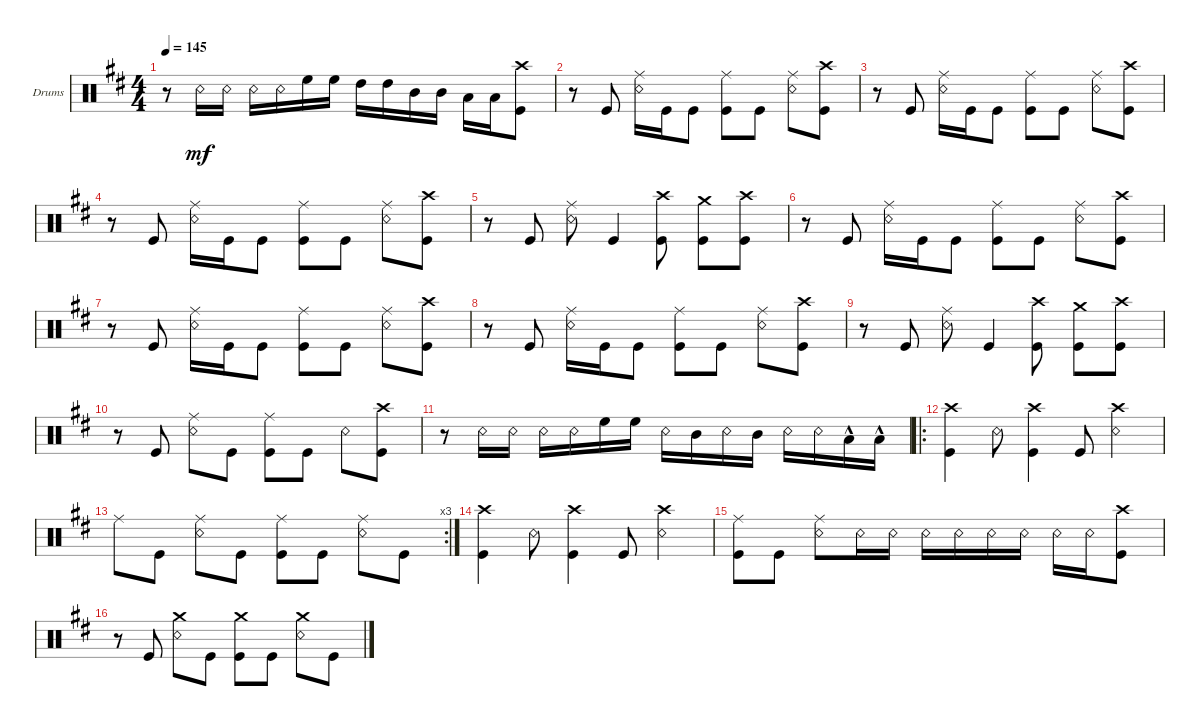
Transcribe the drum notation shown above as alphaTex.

\defaultSystemsLayout 4
\bracketExtendMode groupsimilarinstruments
\firstSystemTrackNameOrientation horizontal
\otherSystemsTrackNameOrientation horizontal
\track ("Drumkit" "Drums") {instrument percussion}
\staff {score}
\articulation defaults
\ts (4 4)
\tempo 145
\clef neutral
\ks bminor
r.8{dy mf} "Snare (rim shot)".16 "Snare (rim shot)".16 "Snare (rim shot)".16 "Snare (rim shot)".16 "High Floor Tom (hit)".16 "High Floor Tom (hit)".16 "High Tom (hit)".16 "High Tom (hit)".16 "Mid Tom (hit)".16 "Mid Tom (hit)".16 "Low Tom (hit)".16 "Low Tom (hit)".16 ("Kick (hit)" "Crash high (hit)").8 |
r.8 "Kick (hit)".8 ("Snare (rim shot)" "Ride (middle)").16 "Kick (hit)".16 "Kick (hit)".8 ("Kick (hit)" "Ride (middle)").8 "Kick (hit)".8 ("Snare (rim shot)" "Ride (middle)").8 ("Kick (hit)" "Crash high (hit)").8 |
r.8 "Kick (hit)".8 ("Snare (rim shot)" "Ride (middle)").16 "Kick (hit)".16 "Kick (hit)".8 ("Kick (hit)" "Ride (middle)").8 "Kick (hit)".8 ("Snare (rim shot)" "Ride (middle)").8 ("Kick (hit)" "Crash high (hit)").8 |
r.8 "Kick (hit)".8 ("Snare (rim shot)" "Ride (middle)").16 "Kick (hit)".16 "Kick (hit)".8 ("Kick (hit)" "Ride (middle)").8 "Kick (hit)".8 ("Snare (rim shot)" "Ride (middle)").8 ("Kick (hit)" "Crash high (hit)").8 |
r.8 "Kick (hit)".8 ("Snare (rim shot)" "Ride (middle)").8 "Kick (hit)".4 ("Kick (hit)" "Crash high (hit)").8 ("Kick (hit)" "Crash medium (hit)").8 ("Kick (hit)" "Crash high (hit)").8 |
r.8 "Kick (hit)".8 ("Snare (rim shot)" "Ride (middle)").16 "Kick (hit)".16 "Kick (hit)".8 ("Kick (hit)" "Ride (middle)").8 "Kick (hit)".8 ("Snare (rim shot)" "Ride (middle)").8 ("Kick (hit)" "Crash high (hit)").8 |
r.8 "Kick (hit)".8 ("Snare (rim shot)" "Ride (middle)").16 "Kick (hit)".16 "Kick (hit)".8 ("Kick (hit)" "Ride (middle)").8 "Kick (hit)".8 ("Snare (rim shot)" "Ride (middle)").8 ("Kick (hit)" "Crash high (hit)").8 |
r.8 "Kick (hit)".8 ("Snare (rim shot)" "Ride (middle)").16 "Kick (hit)".16 "Kick (hit)".8 ("Kick (hit)" "Ride (middle)").8 "Kick (hit)".8 ("Snare (rim shot)" "Ride (middle)").8 ("Kick (hit)" "Crash high (hit)").8 |
r.8 "Kick (hit)".8 ("Snare (rim shot)" "Ride (middle)").8 "Kick (hit)".4 ("Kick (hit)" "Crash high (hit)").8 ("Kick (hit)" "Crash medium (hit)").8 ("Kick (hit)" "Crash high (hit)").8 |
r.8 "Kick (hit)".8 ("Snare (rim shot)" "Ride (middle)").8 "Kick (hit)".8 ("Kick (hit)" "Ride (middle)").8 "Kick (hit)".8 "Snare (rim shot)".8 ("Kick (hit)" "Crash high (hit)").8 |
r.8 "Snare (rim shot)".16 "Snare (rim shot)".16 "Snare (rim shot)".16 "Snare (rim shot)".16 "High Floor Tom (hit)".16 "High Floor Tom (hit)".16 "Snare (rim shot)".16 "Mid Tom (hit)".16 "Snare (rim shot)".16 "Mid Tom (hit)".16 "Snare (rim shot)".16 "Snare (rim shot)".16 "Low Tom (hit)"{hac}.16 "Low Tom (hit)"{hac}.16 |
\ro
("Kick (hit)" "Crash high (hit)").4 "Snare (rim shot)".8 ("Kick (hit)" "Crash high (hit)").4 "Kick (hit)".8 ("Snare (rim shot)" "Crash high (hit)").4 |
\rc 3 "Ride (middle)".8 "Kick (hit)".8
("Snare (rim shot)" "Ride (middle)").8 "Kick (hit)".8 ("Kick (hit)" "Ride (middle)").8 "Kick (hit)".8 ("Snare (rim shot)" "Ride (middle)").8 "Kick (hit)".8 |
("Kick (hit)" "Crash high (hit)").4 "Snare (rim shot)".8 ("Kick (hit)" "Crash high (hit)").4 "Kick (hit)".8 ("Snare (rim shot)" "Crash high (hit)").4 |
("Ride (middle)" "Kick (hit)").8 "Kick (hit)".8 ("Snare (rim shot)" "Ride (middle)").8 "Snare (rim shot)".16 "Snare (rim shot)".16 "Snare (rim shot)".16 "Snare (rim shot)".16 "Snare (rim shot)".16 "Snare (rim shot)".16 "Snare (rim shot)".16 "Snare (rim shot)".16 ("Kick (hit)" "Crash high (hit)").8 |
r.8 "Kick (hit)".8 ("Snare (rim shot)" "Crash medium (hit)").8 "Kick (hit)".8 ("Kick (hit)" "Crash medium (hit)").8 "Kick (hit)".8 ("Snare (rim shot)" "Crash medium (hit)").8 "Kick (hit)".8
